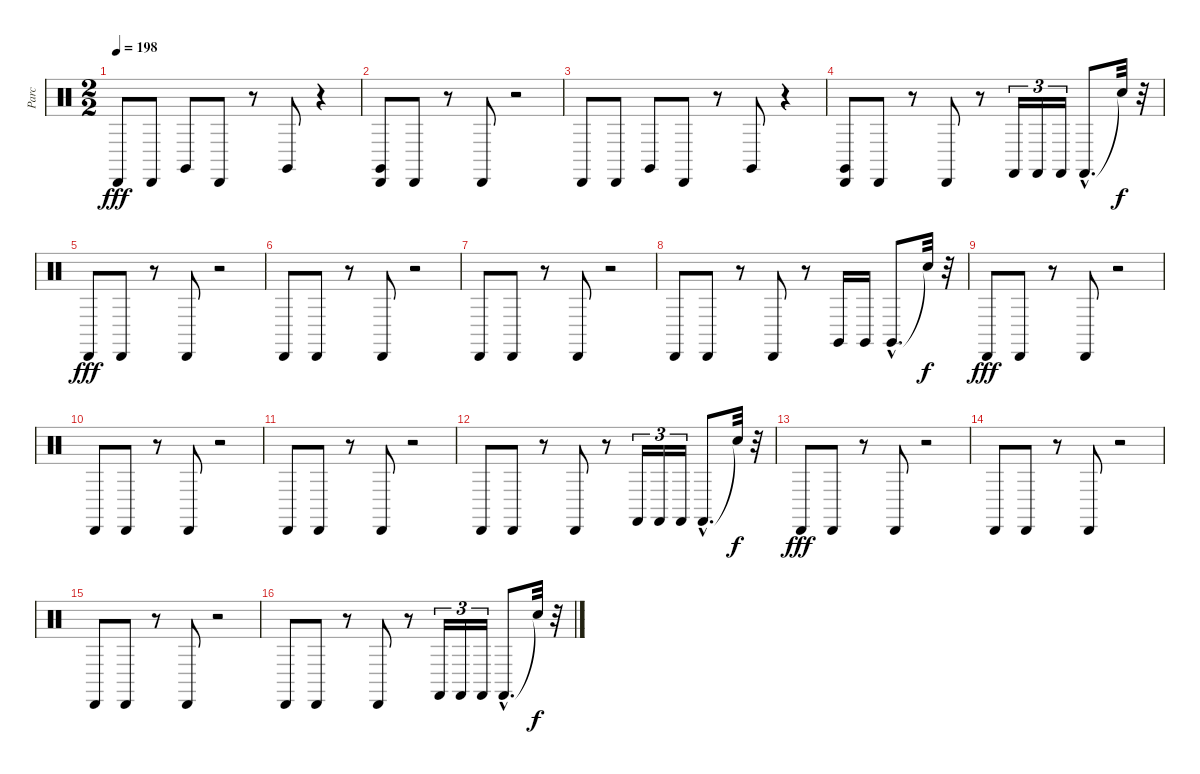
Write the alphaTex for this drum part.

\track ("Parc" "Parc") {instrument percussion}
\staff {score}
\articulation defaults
\ts (2 2)
\tempo 198
\clef neutral
\ks c "Cabasa (hit)".8{dy fff} "Cabasa (hit)".8 "Claves (hit)".8 "Cabasa (hit)".8
r.8 "Claves (hit)".8 r.4 |
("Claves (hit)" "Cabasa (hit)").8 "Cabasa (hit)".8 r.8 "Cabasa (hit)".8 r.2 |
"Cabasa (hit)".8 "Cabasa (hit)".8 "Claves (hit)".8 "Cabasa (hit)".8 r.8 "Claves (hit)".8 r.4 |
("Claves (hit)" "Cabasa (hit)").8 "Cabasa (hit)".8 r.8 "Cabasa (hit)".8 r.8 "Castanets (hit)".16{tu (3 2)} "Castanets (hit)".16{tu (3 2)} "Castanets (hit)".16{tu (3 2)} "Castanets (hit)"{hac}.8{d} "Snare (hit)"{t}.32{dy f} r.32 |
"Cabasa (hit)".8{dy fff} "Cabasa (hit)".8 r.8 "Cabasa (hit)".8 r.2 |
"Cabasa (hit)".8 "Cabasa (hit)".8 r.8 "Cabasa (hit)".8 r.2 |
"Cabasa (hit)".8 "Cabasa (hit)".8 r.8 "Cabasa (hit)".8 r.2 |
"Cabasa (hit)".8 "Cabasa (hit)".8 r.8 "Cabasa (hit)".8 r.8 "Claves (hit)".16 "Claves (hit)".16 "Claves (hit)"{hac}.8{d} "Snare (hit)"{t}.32{dy f} r.32 |
"Cabasa (hit)".8{dy fff} "Cabasa (hit)".8 r.8 "Cabasa (hit)".8 r.2 |
"Cabasa (hit)".8 "Cabasa (hit)".8 r.8 "Cabasa (hit)".8 r.2 |
"Cabasa (hit)".8 "Cabasa (hit)".8 r.8 "Cabasa (hit)".8 r.2 |
"Cabasa (hit)".8 "Cabasa (hit)".8 r.8 "Cabasa (hit)".8 r.8 "Castanets (hit)".16{tu (3 2)} "Castanets (hit)".16{tu (3 2)} "Castanets (hit)".16{tu (3 2)} "Castanets (hit)"{hac}.8{d} "Snare (hit)"{t}.32{dy f} r.32 |
"Cabasa (hit)".8{dy fff} "Cabasa (hit)".8 r.8 "Cabasa (hit)".8 r.2 |
"Cabasa (hit)".8 "Cabasa (hit)".8 r.8 "Cabasa (hit)".8 r.2 |
"Cabasa (hit)".8 "Cabasa (hit)".8 r.8 "Cabasa (hit)".8 r.2 |
"Cabasa (hit)".8 "Cabasa (hit)".8 r.8 "Cabasa (hit)".8 r.8 "Castanets (hit)".16{tu (3 2)} "Castanets (hit)".16{tu (3 2)} "Castanets (hit)".16{tu (3 2)} "Castanets (hit)"{hac}.8{d} "Snare (hit)"{t}.32{dy f} r.32
